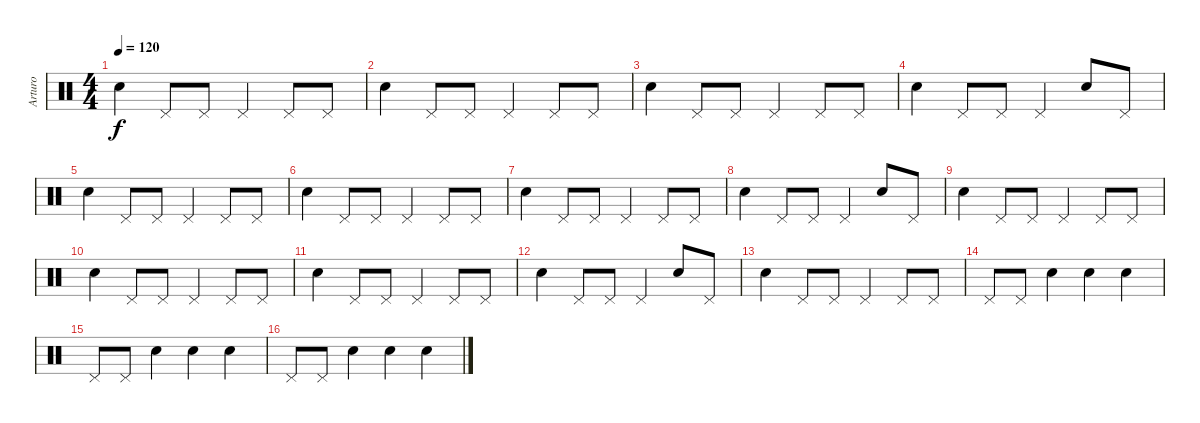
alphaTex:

\track ("Arturo" "Arturo") {instrument percussion}
\staff {score}
\articulation defaults
\ts (4 4)
\tempo 120
\clef neutral
\ks c "Snare (hit) 2".4{dy f} "Pedal Hi-Hat (hit)".8 "Pedal Hi-Hat (hit)".8 "Pedal Hi-Hat (hit)".4 "Pedal Hi-Hat (hit)".8 "Pedal Hi-Hat (hit)".8
|
"Snare (hit) 2".4 "Pedal Hi-Hat (hit)".8 "Pedal Hi-Hat (hit)".8 "Pedal Hi-Hat (hit)".4 "Pedal Hi-Hat (hit)".8 "Pedal Hi-Hat (hit)".8 |
"Snare (hit) 2".4 "Pedal Hi-Hat (hit)".8 "Pedal Hi-Hat (hit)".8 "Pedal Hi-Hat (hit)".4 "Pedal Hi-Hat (hit)".8 "Pedal Hi-Hat (hit)".8 |
"Snare (hit) 2".4 "Pedal Hi-Hat (hit)".8 "Pedal Hi-Hat (hit)".8 "Pedal Hi-Hat (hit)".4 "Electric Snare (hit)".8 "Pedal Hi-Hat (hit)".8 |
"Snare (hit) 2".4 "Pedal Hi-Hat (hit)".8 "Pedal Hi-Hat (hit)".8 "Pedal Hi-Hat (hit)".4 "Pedal Hi-Hat (hit)".8 "Pedal Hi-Hat (hit)".8 |
"Snare (hit) 2".4 "Pedal Hi-Hat (hit)".8 "Pedal Hi-Hat (hit)".8 "Pedal Hi-Hat (hit)".4 "Pedal Hi-Hat (hit)".8 "Pedal Hi-Hat (hit)".8 |
"Snare (hit) 2".4 "Pedal Hi-Hat (hit)".8 "Pedal Hi-Hat (hit)".8 "Pedal Hi-Hat (hit)".4 "Pedal Hi-Hat (hit)".8 "Pedal Hi-Hat (hit)".8 |
"Snare (hit) 2".4 "Pedal Hi-Hat (hit)".8 "Pedal Hi-Hat (hit)".8 "Pedal Hi-Hat (hit)".4 "Electric Snare (hit)".8 "Pedal Hi-Hat (hit)".8 |
"Snare (hit) 2".4 "Pedal Hi-Hat (hit)".8 "Pedal Hi-Hat (hit)".8 "Pedal Hi-Hat (hit)".4 "Pedal Hi-Hat (hit)".8 "Pedal Hi-Hat (hit)".8 |
"Snare (hit) 2".4 "Pedal Hi-Hat (hit)".8 "Pedal Hi-Hat (hit)".8 "Pedal Hi-Hat (hit)".4 "Pedal Hi-Hat (hit)".8 "Pedal Hi-Hat (hit)".8 |
"Snare (hit) 2".4 "Pedal Hi-Hat (hit)".8 "Pedal Hi-Hat (hit)".8 "Pedal Hi-Hat (hit)".4 "Pedal Hi-Hat (hit)".8 "Pedal Hi-Hat (hit)".8 |
"Snare (hit) 2".4 "Pedal Hi-Hat (hit)".8 "Pedal Hi-Hat (hit)".8 "Pedal Hi-Hat (hit)".4 "Electric Snare (hit)".8 "Pedal Hi-Hat (hit)".8 |
"Snare (hit) 2".4 "Pedal Hi-Hat (hit)".8 "Pedal Hi-Hat (hit)".8 "Pedal Hi-Hat (hit)".4 "Pedal Hi-Hat (hit)".8 "Pedal Hi-Hat (hit)".8 |
"Pedal Hi-Hat (hit)".8 "Pedal Hi-Hat (hit)".8 "Snare (hit) 2".4 "Electric Snare (hit)".4 "Snare (hit) 2".4 |
"Pedal Hi-Hat (hit)".8 "Pedal Hi-Hat (hit)".8 "Snare (hit) 2".4 "Electric Snare (hit)".4 "Snare (hit) 2".4 |
"Pedal Hi-Hat (hit)".8 "Pedal Hi-Hat (hit)".8 "Snare (hit) 2".4 "Electric Snare (hit)".4 "Snare (hit) 2".4
